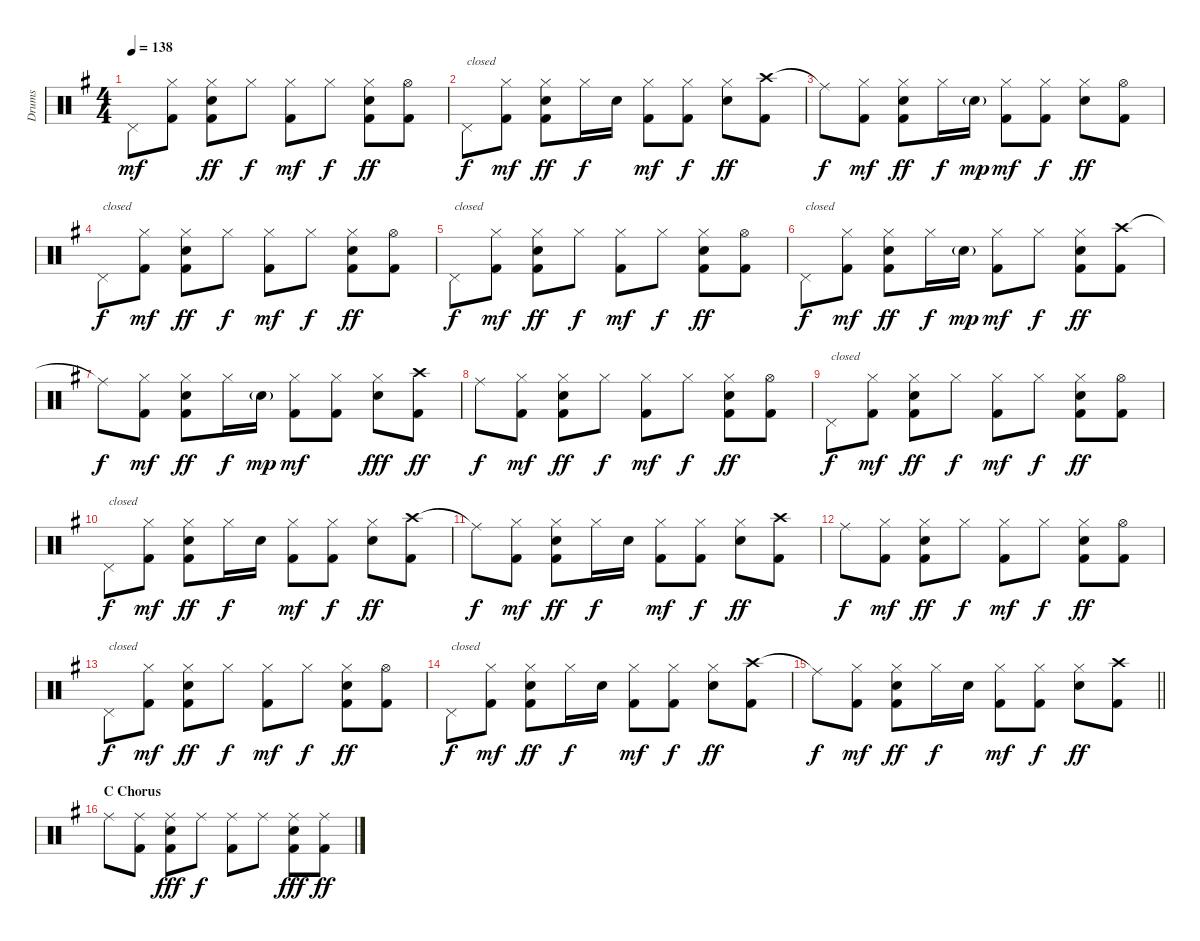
\track ("Drums" "Drums") {instrument percussion}
\staff {score}
\articulation defaults
\ts (4 4)
\tempo 138
\clef neutral
\ks g "Pedal Hi-Hat (hit)".8{dy mf}
("Hi-Hat (closed)" "Kick (hit) 2").8 ("Snare (hit) 2" "Hi-Hat (closed)" "Kick (hit) 2").8{dy ff} "Hi-Hat (closed)".8{dy f} ("Hi-Hat (closed)" "Kick (hit) 2").8{dy mf} "Hi-Hat (closed)".8{dy f} ("Snare (hit) 2" "Hi-Hat (closed)" "Kick (hit) 2").8{dy ff} ("Hi-Hat (open)" "Kick (hit) 2").8 |
"Pedal Hi-Hat (hit)".8{txt "closed" dy f} ("Hi-Hat (closed)" "Kick (hit) 2").8{dy mf} ("Snare (hit) 2" "Hi-Hat (closed)" "Kick (hit) 2").8{dy ff} "Hi-Hat (closed)".16{dy f} "Snare (hit) 2".16 ("Hi-Hat (closed)" "Kick (hit) 2").8{dy mf} ("Hi-Hat (closed)" "Kick (hit) 2").8{dy f} ("Snare (hit) 2" "Hi-Hat (closed)").8{dy ff} ("Crash high (hit)" "Kick (hit) 2").8 |
"Ride (middle)"{t}.8{dy f} ("Hi-Hat (closed)" "Kick (hit) 2").8{dy mf} ("Snare (hit) 2" "Hi-Hat (closed)" "Kick (hit) 2").8{dy ff} "Hi-Hat (closed)".16{dy f} "Snare (hit) 2"{g}.16{dy mp} ("Hi-Hat (closed)" "Kick (hit) 2").8{dy mf} ("Hi-Hat (closed)" "Kick (hit) 2").8{dy f} ("Snare (hit) 2" "Hi-Hat (closed)").8{dy ff} ("Hi-Hat (open)" "Kick (hit) 2").8 |
"Pedal Hi-Hat (hit)".8{txt "closed" dy f} ("Hi-Hat (closed)" "Kick (hit) 2").8{dy mf} ("Snare (hit) 2" "Hi-Hat (closed)" "Kick (hit) 2").8{dy ff} "Hi-Hat (closed)".8{dy f} ("Hi-Hat (closed)" "Kick (hit) 2").8{dy mf} "Hi-Hat (closed)".8{dy f} ("Snare (hit) 2" "Hi-Hat (closed)" "Kick (hit) 2").8{dy ff} ("Hi-Hat (open)" "Kick (hit) 2").8 |
"Pedal Hi-Hat (hit)".8{txt "closed" dy f} ("Hi-Hat (closed)" "Kick (hit) 2").8{dy mf} ("Snare (hit) 2" "Hi-Hat (closed)" "Kick (hit) 2").8{dy ff} "Hi-Hat (closed)".8{dy f} ("Hi-Hat (closed)" "Kick (hit) 2").8{dy mf} "Hi-Hat (closed)".8{dy f} ("Snare (hit) 2" "Hi-Hat (closed)" "Kick (hit) 2").8{dy ff} ("Hi-Hat (open)" "Kick (hit) 2").8 |
"Pedal Hi-Hat (hit)".8{txt "closed" dy f} ("Hi-Hat (closed)" "Kick (hit) 2").8{dy mf} ("Snare (hit) 2" "Hi-Hat (closed)" "Kick (hit) 2").8{dy ff} "Hi-Hat (closed)".16{dy f} "Snare (hit) 2"{g}.16{dy mp} ("Hi-Hat (closed)" "Kick (hit) 2").8{dy mf} "Hi-Hat (closed)".8{dy f} ("Snare (hit) 2" "Hi-Hat (closed)" "Kick (hit) 2").8{dy ff} ("Crash high (hit)" "Kick (hit) 2").8 |
"Ride (middle)"{t}.8{dy f} ("Hi-Hat (closed)" "Kick (hit) 2").8{dy mf} ("Snare (hit) 2" "Hi-Hat (closed)" "Kick (hit) 2").8{dy ff} "Hi-Hat (closed)".16{dy f} "Snare (hit) 2"{g}.16{dy mp} ("Hi-Hat (closed)" "Kick (hit) 2").8{dy mf} ("Hi-Hat (closed)" "Kick (hit) 2").8 ("Snare (hit) 2" "Hi-Hat (closed)").8{dy fff} ("Crash high (hit)" "Kick (hit) 2").8{dy ff} |
"Ride (middle)".8{dy f} ("Hi-Hat (closed)" "Kick (hit) 2").8{dy mf} ("Snare (hit) 2" "Hi-Hat (closed)" "Kick (hit) 2").8{dy ff} "Hi-Hat (closed)".8{dy f} ("Hi-Hat (closed)" "Kick (hit) 2").8{dy mf} "Hi-Hat (closed)".8{dy f} ("Snare (hit) 2" "Hi-Hat (closed)" "Kick (hit) 2").8{dy ff} ("Hi-Hat (open)" "Kick (hit) 2").8 |
"Pedal Hi-Hat (hit)".8{txt "closed" dy f} ("Hi-Hat (closed)" "Kick (hit) 2").8{dy mf} ("Snare (hit) 2" "Hi-Hat (closed)" "Kick (hit) 2").8{dy ff} "Hi-Hat (closed)".8{dy f} ("Hi-Hat (closed)" "Kick (hit) 2").8{dy mf} "Hi-Hat (closed)".8{dy f} ("Snare (hit) 2" "Hi-Hat (closed)" "Kick (hit) 2").8{dy ff} ("Hi-Hat (open)" "Kick (hit) 2").8 |
"Pedal Hi-Hat (hit)".8{txt "closed" dy f} ("Hi-Hat (closed)" "Kick (hit) 2").8{dy mf} ("Snare (hit) 2" "Hi-Hat (closed)" "Kick (hit) 2").8{dy ff} "Hi-Hat (closed)".16{dy f} "Snare (hit) 2".16 ("Hi-Hat (closed)" "Kick (hit) 2").8{dy mf} ("Hi-Hat (closed)" "Kick (hit) 2").8{dy f} ("Snare (hit) 2" "Hi-Hat (closed)").8{dy ff} ("Crash high (hit)" "Kick (hit) 2").8 |
"Ride (middle)"{t}.8{dy f} ("Hi-Hat (closed)" "Kick (hit) 2").8{dy mf} ("Snare (hit) 2" "Hi-Hat (closed)" "Kick (hit) 2").8{dy ff} "Hi-Hat (closed)".16{dy f} "Snare (hit) 2".16 ("Hi-Hat (closed)" "Kick (hit) 2").8{dy mf} ("Hi-Hat (closed)" "Kick (hit) 2").8{dy f} ("Snare (hit) 2" "Hi-Hat (closed)").8{dy ff} ("Crash high (hit)" "Kick (hit) 2").8 |
"Ride (middle)".8{dy f} ("Hi-Hat (closed)" "Kick (hit) 2").8{dy mf} ("Snare (hit) 2" "Hi-Hat (closed)" "Kick (hit) 2").8{dy ff} "Hi-Hat (closed)".8{dy f} ("Hi-Hat (closed)" "Kick (hit) 2").8{dy mf} "Hi-Hat (closed)".8{dy f} ("Snare (hit) 2" "Hi-Hat (closed)" "Kick (hit) 2").8{dy ff} ("Hi-Hat (open)" "Kick (hit) 2").8 |
"Pedal Hi-Hat (hit)".8{txt "closed" dy f} ("Hi-Hat (closed)" "Kick (hit) 2").8{dy mf} ("Snare (hit) 2" "Hi-Hat (closed)" "Kick (hit) 2").8{dy ff} "Hi-Hat (closed)".8{dy f} ("Hi-Hat (closed)" "Kick (hit) 2").8{dy mf} "Hi-Hat (closed)".8{dy f} ("Snare (hit) 2" "Hi-Hat (closed)" "Kick (hit) 2").8{dy ff} ("Hi-Hat (open)" "Kick (hit) 2").8 |
"Pedal Hi-Hat (hit)".8{txt "closed" dy f} ("Hi-Hat (closed)" "Kick (hit) 2").8{dy mf} ("Snare (hit) 2" "Hi-Hat (closed)" "Kick (hit) 2").8{dy ff} "Hi-Hat (closed)".16{dy f} "Snare (hit) 2".16 ("Hi-Hat (closed)" "Kick (hit) 2").8{dy mf} ("Hi-Hat (closed)" "Kick (hit) 2").8{dy f} ("Snare (hit) 2" "Hi-Hat (closed)").8{dy ff} ("Crash high (hit)" "Kick (hit) 2").8 |
\barLineRight lightlight "Ride (middle)"{t}.8{dy f}
("Hi-Hat (closed)" "Kick (hit) 2").8{dy mf} ("Snare (hit) 2" "Hi-Hat (closed)" "Kick (hit) 2").8{dy ff} "Hi-Hat (closed)".16{dy f} "Snare (hit) 2".16 ("Hi-Hat (closed)" "Kick (hit) 2").8{dy mf} ("Hi-Hat (closed)" "Kick (hit) 2").8{dy f} ("Snare (hit) 2" "Hi-Hat (closed)").8{dy ff} ("Crash high (hit)" "Kick (hit) 2").8 |
\section ("" "C Chorus")
"Ride (middle)".8 ("Ride (middle)" "Kick (hit) 2").8 ("Ride (middle)" "Snare (hit) 2" "Kick (hit) 2").8{dy fff} "Ride (middle)".8{dy f} ("Ride (middle)" "Kick (hit) 2").8 "Ride (middle)".8 ("Ride (middle)" "Snare (hit) 2" "Kick (hit) 2").8{dy fff} ("Ride (middle)" "Kick (hit) 2").8{dy ff}
